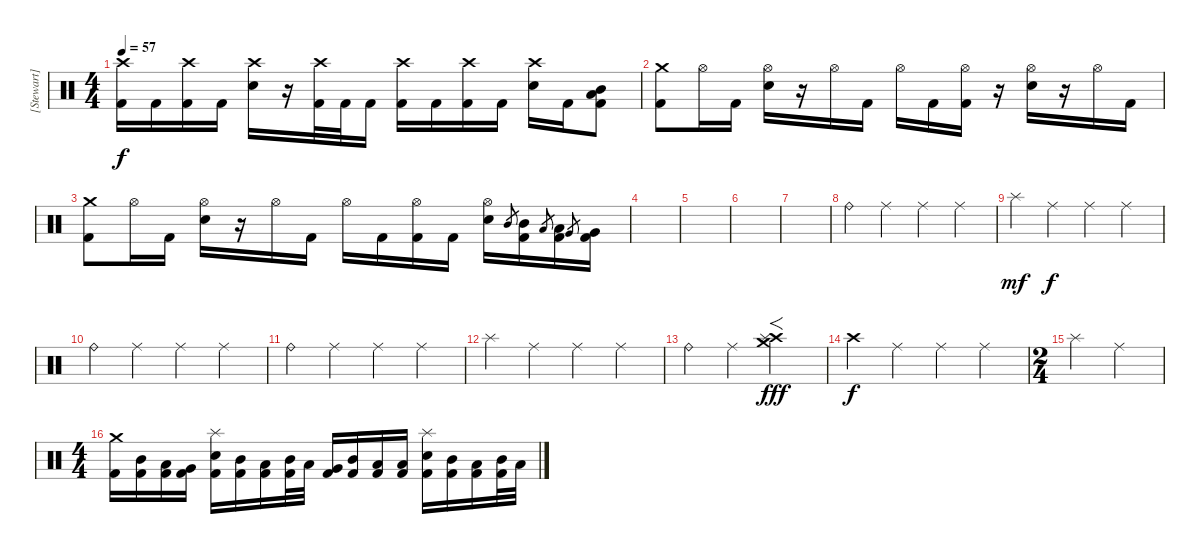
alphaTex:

\track ("[Stewart]" "[Stewart]") {instrument percussion}
\staff {score}
\articulation defaults
\ts (4 4)
\tempo 57
\clef neutral
\ks c
("Kick (hit) 2" "Crash high (hit)").16{dy f} "Kick (hit) 2".16 ("Kick (hit) 2" "Crash high (hit)").16 "Kick (hit) 2".16 ("Electric Snare (hit)" "Crash high (hit)").16 r.16 ("Kick (hit) 2" "Crash high (hit)").32 "Kick (hit) 2".32 "Kick (hit) 2".16 ("Kick (hit) 2" "Crash high (hit)").16 "Kick (hit) 2".16 ("Kick (hit) 2" "Crash high (hit)").16 "Kick (hit) 2".16 ("Electric Snare (hit)" "Crash high (hit)").16 "Kick (hit) 2".16 ("Mid Tom (hit)" "Low Tom (hit)" "Kick (hit) 2").8 |
("Kick (hit) 2" "Crash medium (hit)").8 "Hi-Hat (open)".16 "Kick (hit) 2".16 ("Electric Snare (hit)" "Hi-Hat (open)").16 r.16 "Hi-Hat (open)".16 "Kick (hit) 2".16 "Hi-Hat (open)".16 "Kick (hit) 2".16 ("Kick (hit) 2" "Hi-Hat (open)").16 r.16 ("Electric Snare (hit)" "Hi-Hat (open)").16 r.16 "Hi-Hat (open)".16 "Kick (hit) 2".16 |
("Kick (hit) 2" "Crash medium (hit)").8 "Hi-Hat (open)".16 "Kick (hit) 2".16 ("Electric Snare (hit)" "Hi-Hat (open)").16 r.16 "Hi-Hat (open)".16 "Kick (hit) 2".16 "Hi-Hat (open)".16 "Kick (hit) 2".16 ("Kick (hit) 2" "Hi-Hat (open)").16 "Kick (hit) 2".16 ("Electric Snare (hit)" "Hi-Hat (open)").16 "Mid Tom (hit)".8{gr} ("Mid Tom (hit)" "Kick (hit) 2").16 "Low Tom (hit)".8{gr} ("Low Tom (hit)" "Kick (hit) 2").16 "Very Low Tom (hit)".8{gr} ("Very Low Tom (hit)" "Kick (hit) 2").16 |
|
|
|
|
"Ride (bell)".4 "Ride (middle)".4 "Ride (middle)".4 "Ride (middle)".4 |
"Splash (hit)".4{dy mf} "Ride (middle)".4{dy f} "Ride (middle)".4 "Ride (middle)".4 |
"Ride (bell)".4 "Ride (middle)".4 "Ride (middle)".4 "Ride (middle)".4 |
"Ride (bell)".4 "Ride (middle)".4 "Ride (middle)".4 "Ride (middle)".4 |
"Splash (hit)".4 "Ride (middle)".4 "Ride (middle)".4 "Ride (middle)".4 |
"Ride (bell)".4 "Ride (middle)".4 ("Crash medium (hit)" "Crash high (hit)" "Splash (hit)").2{f dy fff} |
"Crash high (hit)".4{dy f} "Ride (middle)".4 "Ride (middle)".4 "Ride (middle)".4 |
\ts (2 4)
"Splash (hit)".4 "Ride (middle)".4 |
\ts (4 4)
("Kick (hit) 2" "Crash medium (hit)").16 ("Kick (hit) 2" "Mid Tom (hit)").16 ("Kick (hit) 2" "Low Tom (hit)").16 ("Kick (hit) 2" "Very Low Tom (hit)").16 ("Kick (hit) 2" "Electric Snare (hit)" "Splash (hit)").16 ("Kick (hit) 2" "Mid Tom (hit)").16 ("Kick (hit) 2" "Low Tom (hit)").16 ("Kick (hit) 2" "Mid Tom (hit)").32 "Low Tom (hit)".32 ("Kick (hit) 2" "Very Low Tom (hit)").16 ("Kick (hit) 2" "Mid Tom (hit)").16 ("Kick (hit) 2" "Low Tom (hit)").16 ("Kick (hit) 2" "Low Tom (hit)").16 ("Kick (hit) 2" "Electric Snare (hit)" "Splash (hit)").16 ("Kick (hit) 2" "Mid Tom (hit)").16 ("Kick (hit) 2" "Low Tom (hit)").16 ("Kick (hit) 2" "Mid Tom (hit)").32 "Low Tom (hit)".32
